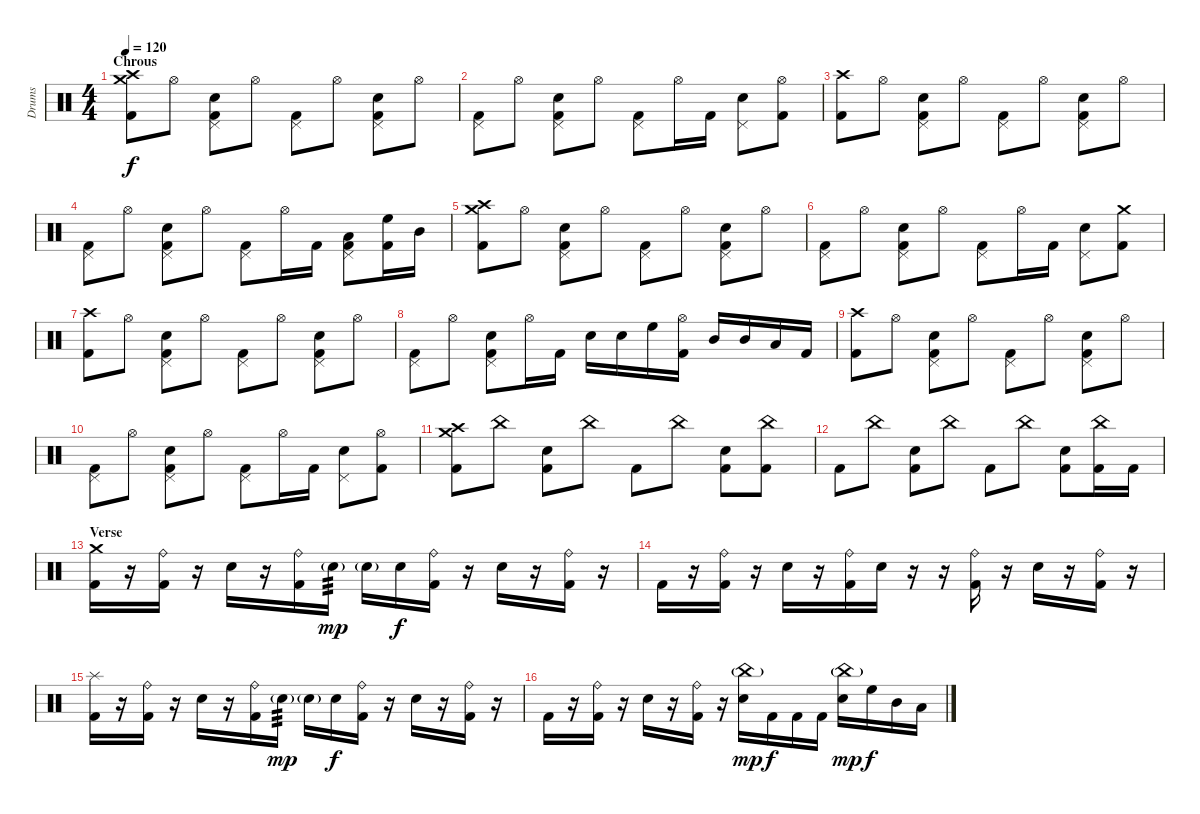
\track ("Drums" "Drums") {instrument percussion}
\staff {score}
\articulation defaults
\ts (4 4)
\section ("" "Chrous")
\tempo 120
\clef neutral
\ks c
("Crash high (hit)" "Crash medium (hit)" "Kick (hit) 2").8{dy f} "Hi-Hat (open)".8 ("Pedal Hi-Hat (hit)" "Electric Snare (hit)" "Kick (hit) 2").8 "Hi-Hat (open)".8 ("Pedal Hi-Hat (hit)" "Kick (hit) 2").8 "Hi-Hat (open)".8 ("Pedal Hi-Hat (hit)" "Electric Snare (hit)" "Kick (hit) 2").8 "Hi-Hat (open)".8 |
("Pedal Hi-Hat (hit)" "Kick (hit) 2").8 "Hi-Hat (open)".8 ("Pedal Hi-Hat (hit)" "Electric Snare (hit)" "Kick (hit) 2").8 "Hi-Hat (open)".8 ("Pedal Hi-Hat (hit)" "Kick (hit) 2").8 "Hi-Hat (open)".16 "Kick (hit) 2".16 ("Pedal Hi-Hat (hit)" "Electric Snare (hit)").8 ("Hi-Hat (open)" "Kick (hit) 2").8 |
("Crash high (hit)" "Kick (hit) 2").8 "Hi-Hat (open)".8 ("Pedal Hi-Hat (hit)" "Electric Snare (hit)" "Kick (hit) 2").8 "Hi-Hat (open)".8 ("Pedal Hi-Hat (hit)" "Kick (hit) 2").8 "Hi-Hat (open)".8 ("Pedal Hi-Hat (hit)" "Electric Snare (hit)" "Kick (hit) 2").8 "Hi-Hat (open)".8 |
("Pedal Hi-Hat (hit)" "Kick (hit) 2").8 "Hi-Hat (open)".8 ("Pedal Hi-Hat (hit)" "Electric Snare (hit)" "Kick (hit) 2").8 "Hi-Hat (open)".8 ("Pedal Hi-Hat (hit)" "Kick (hit) 2").8 "Hi-Hat (open)".16 "Kick (hit) 2".16 ("Pedal Hi-Hat (hit)" "Low Floor Tom (hit)" "Kick (hit) 2").8 ("High Floor Tom (hit)" "Kick (hit) 2").16 "Mid Tom (hit)".16 |
("Crash high (hit)" "Crash medium (hit)" "Kick (hit) 2").8 "Hi-Hat (open)".8 ("Pedal Hi-Hat (hit)" "Electric Snare (hit)" "Kick (hit) 2").8 "Hi-Hat (open)".8 ("Pedal Hi-Hat (hit)" "Kick (hit) 2").8 "Hi-Hat (open)".8 ("Pedal Hi-Hat (hit)" "Electric Snare (hit)" "Kick (hit) 2").8 "Hi-Hat (open)".8 |
("Pedal Hi-Hat (hit)" "Kick (hit) 2").8 "Hi-Hat (open)".8 ("Pedal Hi-Hat (hit)" "Electric Snare (hit)" "Kick (hit) 2").8 "Hi-Hat (open)".8 ("Pedal Hi-Hat (hit)" "Kick (hit) 2").8 "Hi-Hat (open)".16 "Kick (hit) 2".16 ("Pedal Hi-Hat (hit)" "Electric Snare (hit)").8 ("Crash medium (hit)" "Kick (hit) 2").8 |
("Crash high (hit)" "Kick (hit) 2").8 "Hi-Hat (open)".8 ("Pedal Hi-Hat (hit)" "Electric Snare (hit)" "Kick (hit) 2").8 "Hi-Hat (open)".8 ("Pedal Hi-Hat (hit)" "Kick (hit) 2").8 "Hi-Hat (open)".8 ("Pedal Hi-Hat (hit)" "Electric Snare (hit)" "Kick (hit) 2").8 "Hi-Hat (open)".8 |
("Pedal Hi-Hat (hit)" "Kick (hit) 2").8 "Hi-Hat (open)".8 ("Pedal Hi-Hat (hit)" "Electric Snare (hit)" "Kick (hit) 2").8 "Hi-Hat (open)".16 "Kick (hit) 2".16 "Electric Snare (hit)".16 "Electric Snare (hit)".16 "High Floor Tom (hit)".16 ("Hi-Hat (open)" "Kick (hit) 2").16 "Mid Tom (hit)".16 "Mid Tom (hit)".16 "Low Tom (hit)".16 "Kick (hit) 2".16 |
\section ("" "")
("Crash high (hit)" "Kick (hit) 2").8 "Hi-Hat (open)".8 ("Pedal Hi-Hat (hit)" "Electric Snare (hit)" "Kick (hit) 2").8 "Hi-Hat (open)".8 ("Pedal Hi-Hat (hit)" "Kick (hit) 2").8 "Hi-Hat (open)".8 ("Pedal Hi-Hat (hit)" "Electric Snare (hit)" "Kick (hit) 2").8 "Hi-Hat (open)".8 |
("Pedal Hi-Hat (hit)" "Kick (hit) 2").8 "Hi-Hat (open)".8 ("Pedal Hi-Hat (hit)" "Electric Snare (hit)" "Kick (hit) 2").8 "Hi-Hat (open)".8 ("Pedal Hi-Hat (hit)" "Kick (hit) 2").8 "Hi-Hat (open)".16 "Kick (hit) 2".16 ("Pedal Hi-Hat (hit)" "Electric Snare (hit)").8 ("Hi-Hat (open)" "Kick (hit) 2").8 |
("Crash high (hit)" "Crash medium (hit)" "Kick (hit) 2").8 "China (hit)".8 ("Electric Snare (hit)" "Kick (hit) 2").8 "China (hit)".8 "Kick (hit) 2".8 "China (hit)".8 ("Electric Snare (hit)" "Kick (hit) 2").8 ("China (hit)" "Kick (hit) 2").8 |
"Kick (hit) 2".8 "China (hit)".8 ("Electric Snare (hit)" "Kick (hit) 2").8 "China (hit)".8 "Kick (hit) 2".8 "China (hit)".8 ("Electric Snare (hit)" "Kick (hit) 2").8 ("China (hit)" "Kick (hit) 2").16 "Kick (hit) 2".16 |
\section ("" "Verse")
("Crash medium (hit)" "Kick (hit) 2").16 r.16 ("Ride (bell)" "Kick (hit) 2").16 r.16 "Electric Snare (hit)".16 r.16 ("Ride (bell)" "Kick (hit) 2").16 "Electric Snare (hit)"{g}.16{tp 3 dy mp} "Electric Snare (hit)"{g}.16 "Electric Snare (hit)".16{dy f} ("Ride (bell)" "Kick (hit) 2").16 r.16 "Electric Snare (hit)".16 r.16 ("Ride (bell)" "Kick (hit) 2").16 r.16 |
"Kick (hit) 2".16 r.16 ("Ride (bell)" "Kick (hit) 2").16 r.16 "Electric Snare (hit)".16 r.16 ("Ride (bell)" "Kick (hit) 2").16 "Electric Snare (hit)".16 r.16 r.16 ("Ride (bell)" "Kick (hit) 2").16 r.16 "Electric Snare (hit)".16 r.16 ("Ride (bell)" "Kick (hit) 2").16 r.16 |
("Splash (hit)" "Kick (hit) 2").16 r.16 ("Ride (bell)" "Kick (hit) 2").16 r.16 "Electric Snare (hit)".16 r.16 ("Ride (bell)" "Kick (hit) 2").16 "Electric Snare (hit)"{g}.16{tp 3 dy mp} "Electric Snare (hit)"{g}.16 "Electric Snare (hit)".16{dy f} ("Ride (bell)" "Kick (hit) 2").16 r.16 "Electric Snare (hit)".16 r.16 ("Ride (bell)" "Kick (hit) 2").16 r.16 |
"Kick (hit) 2".16 r.16 ("Ride (bell)" "Kick (hit) 2").16 r.16 "Electric Snare (hit)".16 r.16 ("Ride (bell)" "Kick (hit) 2").16 r.16 ("China (hit)"{g} "Electric Snare (hit)").16{dy mp} "Kick (hit) 2".16{dy f} "Kick (hit) 2".16 "Kick (hit) 2".16 ("China (hit)"{g} "Electric Snare (hit)").16{dy mp} "High Floor Tom (hit)".16{dy f} "Mid Tom (hit)".16 "Low Tom (hit)".16
